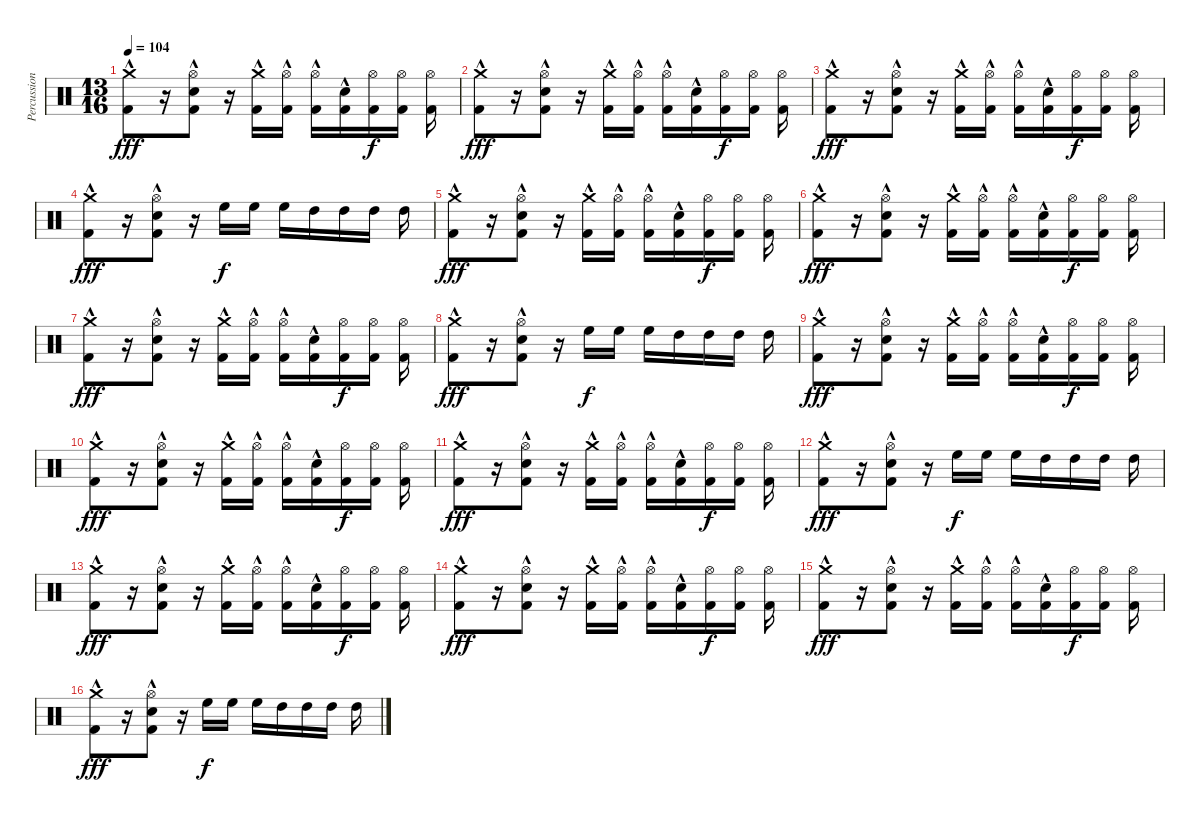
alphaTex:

\track ("Percussion" "Percussion") {instrument percussion}
\staff {score}
\articulation defaults
\ts (13 16)
\tempo 104
\clef neutral
\ks c
("Crash medium (hit)"{hac} "Kick (hit) 2"{hac}).8{dy fff} r.16 ("Hi-Hat (open)"{hac} "Electric Snare (hit)"{hac} "Kick (hit) 2"{hac}).8 r.16 ("Crash medium (hit)" "Kick (hit) 2"{hac}).16 ("Hi-Hat (open)" "Kick (hit) 2"{hac}).16 ("Hi-Hat (open)" "Kick (hit) 2"{hac}).16 ("Electric Snare (hit)"{hac} "Kick (hit) 2"{hac}).16 ("Hi-Hat (open)" "Kick (hit) 2").16{dy f} ("Hi-Hat (open)" "Kick (hit) 2").16 ("Hi-Hat (open)" "Kick (hit) 2").16 |
("Crash medium (hit)"{hac} "Kick (hit) 2"{hac}).8{dy fff} r.16 ("Hi-Hat (open)"{hac} "Electric Snare (hit)"{hac} "Kick (hit) 2"{hac}).8 r.16 ("Crash medium (hit)" "Kick (hit) 2"{hac}).16 ("Hi-Hat (open)" "Kick (hit) 2"{hac}).16 ("Hi-Hat (open)" "Kick (hit) 2"{hac}).16 ("Electric Snare (hit)"{hac} "Kick (hit) 2"{hac}).16 ("Hi-Hat (open)" "Kick (hit) 2").16{dy f} ("Hi-Hat (open)" "Kick (hit) 2").16 ("Hi-Hat (open)" "Kick (hit) 2").16 |
("Crash medium (hit)"{hac} "Kick (hit) 2"{hac}).8{dy fff} r.16 ("Hi-Hat (open)"{hac} "Electric Snare (hit)"{hac} "Kick (hit) 2"{hac}).8 r.16 ("Crash medium (hit)" "Kick (hit) 2"{hac}).16 ("Hi-Hat (open)" "Kick (hit) 2"{hac}).16 ("Hi-Hat (open)" "Kick (hit) 2"{hac}).16 ("Electric Snare (hit)"{hac} "Kick (hit) 2"{hac}).16 ("Hi-Hat (open)" "Kick (hit) 2").16{dy f} ("Hi-Hat (open)" "Kick (hit) 2").16 ("Hi-Hat (open)" "Kick (hit) 2").16 |
("Crash medium (hit)"{hac} "Kick (hit) 2"{hac}).8{dy fff} r.16 ("Hi-Hat (open)"{hac} "Electric Snare (hit)"{hac} "Kick (hit) 2"{hac}).8 r.16 "High Floor Tom (hit)".16{dy f} "High Floor Tom (hit)".16 "High Floor Tom (hit)".16 "High Tom (hit)".16 "High Tom (hit)".16 "High Tom (hit)".16 "High Tom (hit)".16 |
("Crash medium (hit)"{hac} "Kick (hit) 2"{hac}).8{dy fff} r.16 ("Hi-Hat (open)"{hac} "Electric Snare (hit)"{hac} "Kick (hit) 2"{hac}).8 r.16 ("Crash medium (hit)" "Kick (hit) 2"{hac}).16 ("Hi-Hat (open)" "Kick (hit) 2"{hac}).16 ("Hi-Hat (open)" "Kick (hit) 2"{hac}).16 ("Electric Snare (hit)"{hac} "Kick (hit) 2"{hac}).16 ("Hi-Hat (open)" "Kick (hit) 2").16{dy f} ("Hi-Hat (open)" "Kick (hit) 2").16 ("Hi-Hat (open)" "Kick (hit) 2").16 |
("Crash medium (hit)"{hac} "Kick (hit) 2"{hac}).8{dy fff} r.16 ("Hi-Hat (open)"{hac} "Electric Snare (hit)"{hac} "Kick (hit) 2"{hac}).8 r.16 ("Crash medium (hit)" "Kick (hit) 2"{hac}).16 ("Hi-Hat (open)" "Kick (hit) 2"{hac}).16 ("Hi-Hat (open)" "Kick (hit) 2"{hac}).16 ("Electric Snare (hit)"{hac} "Kick (hit) 2"{hac}).16 ("Hi-Hat (open)" "Kick (hit) 2").16{dy f} ("Hi-Hat (open)" "Kick (hit) 2").16 ("Hi-Hat (open)" "Kick (hit) 2").16 |
("Crash medium (hit)"{hac} "Kick (hit) 2"{hac}).8{dy fff} r.16 ("Hi-Hat (open)"{hac} "Electric Snare (hit)"{hac} "Kick (hit) 2"{hac}).8 r.16 ("Crash medium (hit)" "Kick (hit) 2"{hac}).16 ("Hi-Hat (open)" "Kick (hit) 2"{hac}).16 ("Hi-Hat (open)" "Kick (hit) 2"{hac}).16 ("Electric Snare (hit)"{hac} "Kick (hit) 2"{hac}).16 ("Hi-Hat (open)" "Kick (hit) 2").16{dy f} ("Hi-Hat (open)" "Kick (hit) 2").16 ("Hi-Hat (open)" "Kick (hit) 2").16 |
("Crash medium (hit)"{hac} "Kick (hit) 2"{hac}).8{dy fff} r.16 ("Hi-Hat (open)"{hac} "Electric Snare (hit)"{hac} "Kick (hit) 2"{hac}).8 r.16 "High Floor Tom (hit)".16{dy f} "High Floor Tom (hit)".16 "High Floor Tom (hit)".16 "High Tom (hit)".16 "High Tom (hit)".16 "High Tom (hit)".16 "High Tom (hit)".16 |
("Crash medium (hit)"{hac} "Kick (hit) 2"{hac}).8{dy fff} r.16 ("Hi-Hat (open)"{hac} "Electric Snare (hit)"{hac} "Kick (hit) 2"{hac}).8 r.16 ("Crash medium (hit)" "Kick (hit) 2"{hac}).16 ("Hi-Hat (open)" "Kick (hit) 2"{hac}).16 ("Hi-Hat (open)" "Kick (hit) 2"{hac}).16 ("Electric Snare (hit)"{hac} "Kick (hit) 2"{hac}).16 ("Hi-Hat (open)" "Kick (hit) 2").16{dy f} ("Hi-Hat (open)" "Kick (hit) 2").16 ("Hi-Hat (open)" "Kick (hit) 2").16 |
("Crash medium (hit)"{hac} "Kick (hit) 2"{hac}).8{dy fff} r.16 ("Hi-Hat (open)"{hac} "Electric Snare (hit)"{hac} "Kick (hit) 2"{hac}).8 r.16 ("Crash medium (hit)" "Kick (hit) 2"{hac}).16 ("Hi-Hat (open)" "Kick (hit) 2"{hac}).16 ("Hi-Hat (open)" "Kick (hit) 2"{hac}).16 ("Electric Snare (hit)"{hac} "Kick (hit) 2"{hac}).16 ("Hi-Hat (open)" "Kick (hit) 2").16{dy f} ("Hi-Hat (open)" "Kick (hit) 2").16 ("Hi-Hat (open)" "Kick (hit) 2").16 |
("Crash medium (hit)"{hac} "Kick (hit) 2"{hac}).8{dy fff} r.16 ("Hi-Hat (open)"{hac} "Electric Snare (hit)"{hac} "Kick (hit) 2"{hac}).8 r.16 ("Crash medium (hit)" "Kick (hit) 2"{hac}).16 ("Hi-Hat (open)" "Kick (hit) 2"{hac}).16 ("Hi-Hat (open)" "Kick (hit) 2"{hac}).16 ("Electric Snare (hit)"{hac} "Kick (hit) 2"{hac}).16 ("Hi-Hat (open)" "Kick (hit) 2").16{dy f} ("Hi-Hat (open)" "Kick (hit) 2").16 ("Hi-Hat (open)" "Kick (hit) 2").16 |
("Crash medium (hit)"{hac} "Kick (hit) 2"{hac}).8{dy fff} r.16 ("Hi-Hat (open)"{hac} "Electric Snare (hit)"{hac} "Kick (hit) 2"{hac}).8 r.16 "High Floor Tom (hit)".16{dy f} "High Floor Tom (hit)".16 "High Floor Tom (hit)".16 "High Tom (hit)".16 "High Tom (hit)".16 "High Tom (hit)".16 "High Tom (hit)".16 |
("Crash medium (hit)"{hac} "Kick (hit) 2"{hac}).8{dy fff} r.16 ("Hi-Hat (open)"{hac} "Electric Snare (hit)"{hac} "Kick (hit) 2"{hac}).8 r.16 ("Crash medium (hit)" "Kick (hit) 2"{hac}).16 ("Hi-Hat (open)" "Kick (hit) 2"{hac}).16 ("Hi-Hat (open)" "Kick (hit) 2"{hac}).16 ("Electric Snare (hit)"{hac} "Kick (hit) 2"{hac}).16 ("Hi-Hat (open)" "Kick (hit) 2").16{dy f} ("Hi-Hat (open)" "Kick (hit) 2").16 ("Hi-Hat (open)" "Kick (hit) 2").16 |
("Crash medium (hit)"{hac} "Kick (hit) 2"{hac}).8{dy fff} r.16 ("Hi-Hat (open)"{hac} "Electric Snare (hit)"{hac} "Kick (hit) 2"{hac}).8 r.16 ("Crash medium (hit)" "Kick (hit) 2"{hac}).16 ("Hi-Hat (open)" "Kick (hit) 2"{hac}).16 ("Hi-Hat (open)" "Kick (hit) 2"{hac}).16 ("Electric Snare (hit)"{hac} "Kick (hit) 2"{hac}).16 ("Hi-Hat (open)" "Kick (hit) 2").16{dy f} ("Hi-Hat (open)" "Kick (hit) 2").16 ("Hi-Hat (open)" "Kick (hit) 2").16 |
("Crash medium (hit)"{hac} "Kick (hit) 2"{hac}).8{dy fff} r.16 ("Hi-Hat (open)"{hac} "Electric Snare (hit)"{hac} "Kick (hit) 2"{hac}).8 r.16 ("Crash medium (hit)" "Kick (hit) 2"{hac}).16 ("Hi-Hat (open)" "Kick (hit) 2"{hac}).16 ("Hi-Hat (open)" "Kick (hit) 2"{hac}).16 ("Electric Snare (hit)"{hac} "Kick (hit) 2"{hac}).16 ("Hi-Hat (open)" "Kick (hit) 2").16{dy f} ("Hi-Hat (open)" "Kick (hit) 2").16 ("Hi-Hat (open)" "Kick (hit) 2").16 |
("Crash medium (hit)"{hac} "Kick (hit) 2"{hac}).8{dy fff} r.16 ("Hi-Hat (open)"{hac} "Electric Snare (hit)"{hac} "Kick (hit) 2"{hac}).8 r.16 "High Floor Tom (hit)".16{dy f} "High Floor Tom (hit)".16 "High Floor Tom (hit)".16 "High Tom (hit)".16 "High Tom (hit)".16 "High Tom (hit)".16 "High Tom (hit)".16
